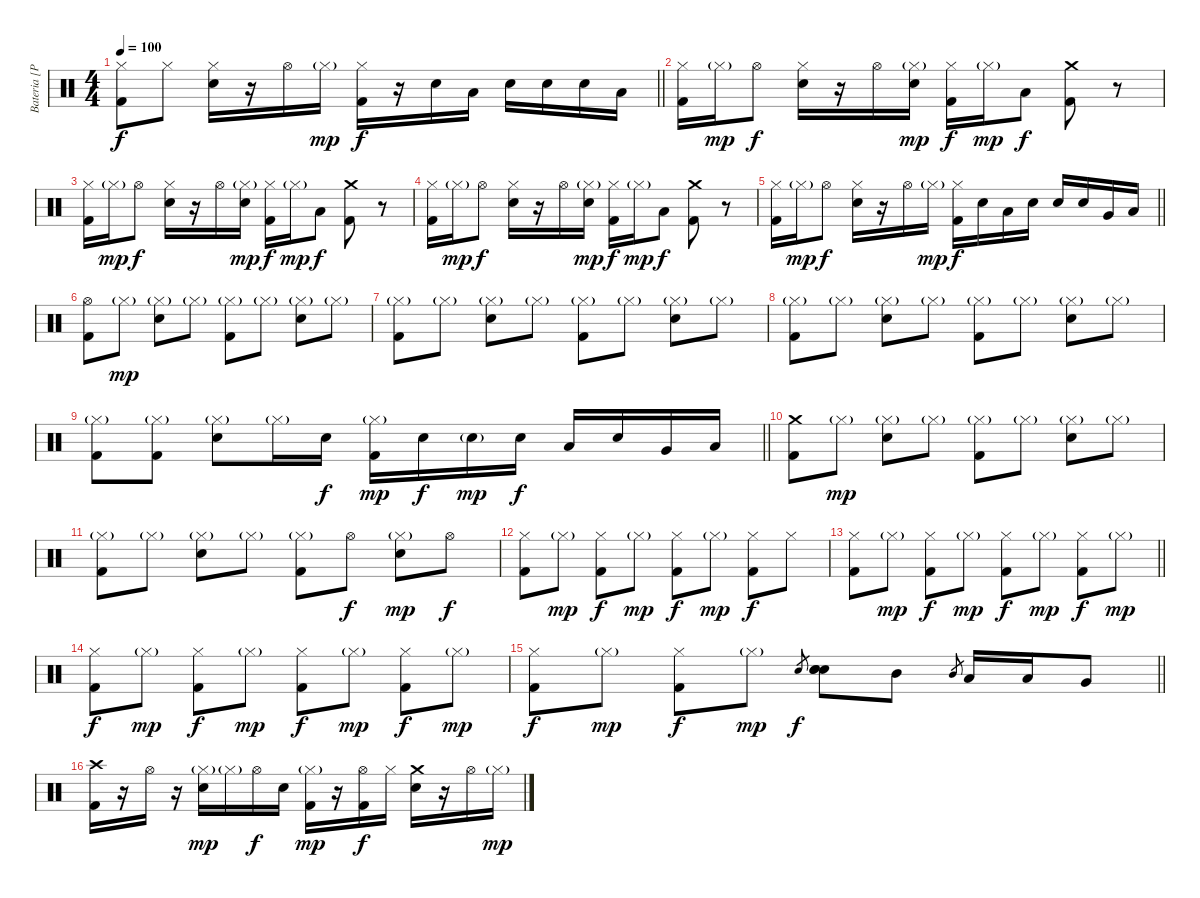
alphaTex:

\track ("Bateria [Paul]" "Bateria [P") {instrument percussion}
\staff {score}
\articulation defaults
\ts (4 4)
\tempo 100
\clef neutral
\barLineRight lightlight
\ks c
("Hi-Hat (closed)" "Kick (hit) 2").8{dy f} "Hi-Hat (closed)".8 ("Hi-Hat (closed)" "Snare (hit) 2").16 r.16 "Hi-Hat (open)".16 "Hi-Hat (closed)"{g}.16{dy mp} ("Hi-Hat (closed)" "Kick (hit) 2").16{dy f} r.16 "Snare (hit) 2".16 "Low Tom (hit)".16 "Snare (hit) 2".16 "Snare (hit) 2".16 "Snare (hit) 2".16 "Low Floor Tom (hit)".16 |
("Hi-Hat (closed)" "Kick (hit) 2").16 "Hi-Hat (closed)"{g}.16{dy mp} "Hi-Hat (open)".8{dy f} ("Hi-Hat (closed)" "Snare (hit) 2").16 r.16 "Hi-Hat (open)".16 ("Hi-Hat (closed)"{g} "Snare (hit) 2").16{dy mp} ("Hi-Hat (closed)" "Kick (hit) 2").16{dy f} "Hi-Hat (closed)"{g}.16{dy mp} "Low Tom (hit)".8{dy f} ("Crash medium (hit)" "Kick (hit) 2").8 r.8 |
("Hi-Hat (closed)" "Kick (hit) 2").16 "Hi-Hat (closed)"{g}.16{dy mp} "Hi-Hat (open)".8{dy f} ("Hi-Hat (closed)" "Snare (hit) 2").16 r.16 "Hi-Hat (open)".16 ("Hi-Hat (closed)"{g} "Snare (hit) 2").16{dy mp} ("Hi-Hat (closed)" "Kick (hit) 2").16{dy f} "Hi-Hat (closed)"{g}.16{dy mp} "Low Tom (hit)".8{dy f} ("Crash medium (hit)" "Kick (hit) 2").8 r.8 |
("Hi-Hat (closed)" "Kick (hit) 2").16 "Hi-Hat (closed)"{g}.16{dy mp} "Hi-Hat (open)".8{dy f} ("Hi-Hat (closed)" "Snare (hit) 2").16 r.16 "Hi-Hat (open)".16 ("Hi-Hat (closed)"{g} "Snare (hit) 2").16{dy mp} ("Hi-Hat (closed)" "Kick (hit) 2").16{dy f} "Hi-Hat (closed)"{g}.16{dy mp} "Low Tom (hit)".8{dy f} ("Crash medium (hit)" "Kick (hit) 2").8 r.8 |
\barLineRight lightlight
("Hi-Hat (closed)" "Kick (hit) 2").16 "Hi-Hat (closed)"{g}.16{dy mp} "Hi-Hat (open)".8{dy f} ("Hi-Hat (closed)" "Snare (hit) 2").16 r.16 "Hi-Hat (open)".16 "Hi-Hat (closed)"{g}.16{dy mp} ("Hi-Hat (closed)" "Kick (hit) 2").16{dy f} "Snare (hit) 2".16 "Low Tom (hit)".16 "Snare (hit) 2".16 "Snare (hit) 2".16 "Snare (hit) 2".16 "Very Low Tom (hit)".16 "Low Floor Tom (hit)".16 |
("Hi-Hat (open)" "Kick (hit) 2").8 "Hi-Hat (closed)"{g}.8{dy mp} ("Hi-Hat (closed)"{g} "Snare (hit) 2").8 "Hi-Hat (closed)"{g}.8 ("Hi-Hat (closed)"{g} "Kick (hit) 2").8 "Hi-Hat (closed)"{g}.8 ("Hi-Hat (closed)"{g} "Snare (hit) 2").8 "Hi-Hat (closed)"{g}.8 |
("Hi-Hat (closed)"{g} "Kick (hit) 2").8 "Hi-Hat (closed)"{g}.8 ("Hi-Hat (closed)"{g} "Snare (hit) 2").8 "Hi-Hat (closed)"{g}.8 ("Hi-Hat (closed)"{g} "Kick (hit) 2").8 "Hi-Hat (closed)"{g}.8 ("Hi-Hat (closed)"{g} "Snare (hit) 2").8 "Hi-Hat (closed)"{g}.8 |
("Hi-Hat (closed)"{g} "Kick (hit) 2").8 "Hi-Hat (closed)"{g}.8 ("Hi-Hat (closed)"{g} "Snare (hit) 2").8 "Hi-Hat (closed)"{g}.8 ("Hi-Hat (closed)"{g} "Kick (hit) 2").8 "Hi-Hat (closed)"{g}.8 ("Hi-Hat (closed)"{g} "Snare (hit) 2").8 "Hi-Hat (closed)"{g}.8 |
\barLineRight lightlight
("Hi-Hat (closed)"{g} "Kick (hit) 2").8 ("Hi-Hat (closed)"{g} "Kick (hit) 2").8 ("Hi-Hat (closed)"{g} "Snare (hit) 2").8 "Hi-Hat (closed)"{g}.16 "Snare (hit) 2".16{dy f} ("Hi-Hat (closed)"{g} "Kick (hit) 2").16{dy mp} "Snare (hit) 2".16{dy f} "Snare (hit) 2"{g}.16{dy mp} "Snare (hit) 2".16{dy f} "Low Tom (hit)".16 "Snare (hit) 2".16 "Very Low Tom (hit)".16 "Low Floor Tom (hit)".16 |
("Crash medium (hit)" "Kick (hit) 2").8 "Hi-Hat (closed)"{g}.8{dy mp} ("Hi-Hat (closed)"{g} "Snare (hit) 2").8 "Hi-Hat (closed)"{g}.8 ("Hi-Hat (closed)"{g} "Kick (hit) 2").8 "Hi-Hat (closed)"{g}.8 ("Hi-Hat (closed)"{g} "Snare (hit) 2").8 "Hi-Hat (closed)"{g}.8 |
("Hi-Hat (closed)"{g} "Kick (hit) 2").8 "Hi-Hat (closed)"{g}.8 ("Hi-Hat (closed)"{g} "Snare (hit) 2").8 "Hi-Hat (closed)"{g}.8 ("Hi-Hat (closed)"{g} "Kick (hit) 2").8 "Hi-Hat (open)".8{dy f} ("Hi-Hat (closed)"{g} "Snare (hit) 2").8{dy mp} "Hi-Hat (open)".8{dy f} |
("Hi-Hat (closed)" "Kick (hit) 2").8 "Hi-Hat (closed)"{g}.8{dy mp} ("Hi-Hat (closed)" "Kick (hit) 2").8{dy f} "Hi-Hat (closed)"{g}.8{dy mp} ("Hi-Hat (closed)" "Kick (hit) 2").8{dy f} "Hi-Hat (closed)"{g}.8{dy mp} ("Hi-Hat (closed)" "Kick (hit) 2").8{dy f} "Hi-Hat (closed)".8 |
\barLineRight lightlight
("Hi-Hat (closed)" "Kick (hit) 2").8 "Hi-Hat (closed)"{g}.8{dy mp} ("Hi-Hat (closed)" "Kick (hit) 2").8{dy f} "Hi-Hat (closed)"{g}.8{dy mp} ("Hi-Hat (closed)" "Kick (hit) 2").8{dy f} "Hi-Hat (closed)"{g}.8{dy mp} ("Hi-Hat (closed)" "Kick (hit) 2").8{dy f} "Hi-Hat (closed)"{g}.8{dy mp} |
("Hi-Hat (closed)" "Kick (hit) 2").8{dy f} "Hi-Hat (closed)"{g}.8{dy mp} ("Hi-Hat (closed)" "Kick (hit) 2").8{dy f} "Hi-Hat (closed)"{g}.8{dy mp} ("Hi-Hat (closed)" "Kick (hit) 2").8{dy f} "Hi-Hat (closed)"{g}.8{dy mp} ("Hi-Hat (closed)" "Kick (hit) 2").8{dy f} "Hi-Hat (closed)"{g}.8{dy mp} |
\barLineRight lightlight
("Hi-Hat (closed)" "Kick (hit) 2").8{dy f} "Hi-Hat (closed)"{g}.8{dy mp} ("Hi-Hat (closed)" "Kick (hit) 2").8{dy f} "Hi-Hat (closed)"{g}.8{dy mp} "Snare (hit) 2".8{gr dy f} ("Snare (hit) 2" "Snare (hit) 2" "Electric Snare (hit)").8 "Mid Tom (hit)".8 "Mid Tom (hit)".8{gr} "Low Tom (hit)".16 "Low Floor Tom (hit)".16 "Very Low Tom (hit)".8 |
("Crash high (hit)" "Kick (hit) 2").16 r.16 "Hi-Hat (open)".16 r.16 ("Hi-Hat (closed)"{g} "Snare (hit) 2").16{dy mp} "Hi-Hat (closed)"{g}.16 "Hi-Hat (open)".16{dy f} "Snare (hit) 2".16 ("Hi-Hat (closed)"{g} "Kick (hit) 2").16{dy mp} r.16 ("Hi-Hat (open)" "Kick (hit) 2").16{dy f} "Hi-Hat (closed)".16 ("Crash medium (hit)" "Snare (hit) 2").16 r.16 "Hi-Hat (open)".16 "Hi-Hat (closed)"{g}.16{dy mp}
